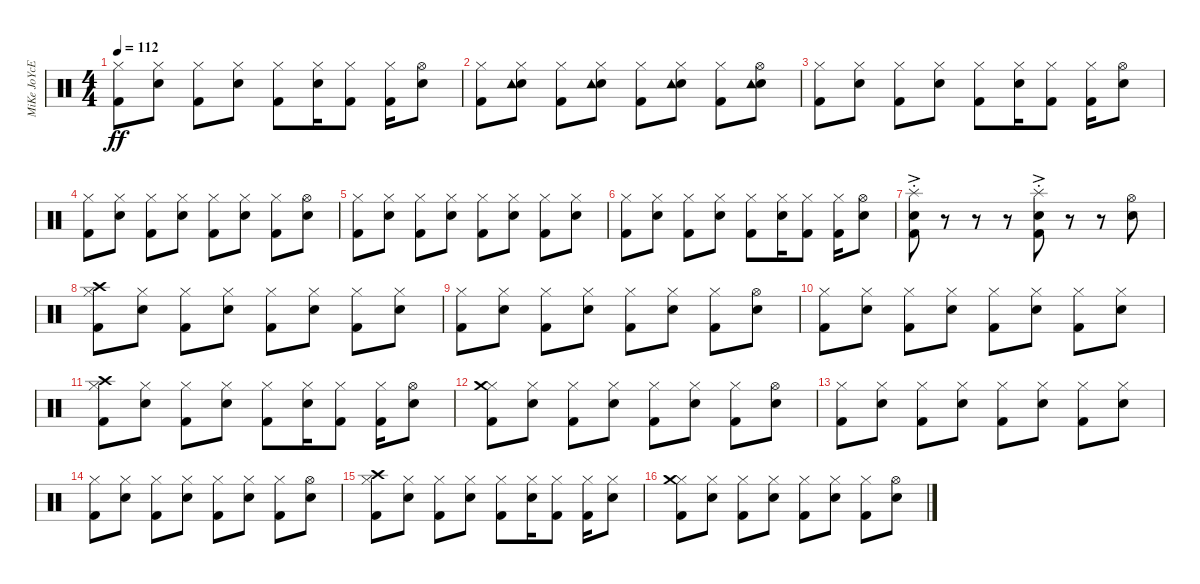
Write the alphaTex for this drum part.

\track ("MiKe JoYcE" "MiKe JoYcE") {instrument percussion}
\staff {score}
\articulation defaults
\ts (4 4)
\tempo 112
\clef neutral
\ks c
("Hi-Hat (closed)" "Kick (hit) 2").8{dy ff} ("Hi-Hat (closed)" "Electric Snare (hit)").8 ("Hi-Hat (closed)" "Kick (hit) 2").8 ("Hi-Hat (closed)" "Electric Snare (hit)").8 ("Hi-Hat (closed)" "Kick (hit) 2").8 ("Hi-Hat (closed)" "Electric Snare (hit)").16 ("Hi-Hat (closed)" "Kick (hit) 2").8 ("Hi-Hat (closed)" "Kick (hit) 2").16 ("Hi-Hat (open)" "Electric Snare (hit)").8 |
("Hi-Hat (closed)" "Kick (hit) 2").8 ("Hi-Hat (closed)" "Electric Snare (hit)" "Tambourine (hit)").8 ("Hi-Hat (closed)" "Kick (hit) 2").8 ("Hi-Hat (closed)" "Electric Snare (hit)" "Tambourine (hit)").8 ("Hi-Hat (closed)" "Kick (hit) 2").8 ("Hi-Hat (closed)" "Electric Snare (hit)" "Tambourine (hit)").8 ("Hi-Hat (closed)" "Kick (hit) 2").8 ("Hi-Hat (open)" "Electric Snare (hit)" "Tambourine (hit)").8 |
("Hi-Hat (closed)" "Kick (hit) 2").8 ("Hi-Hat (closed)" "Electric Snare (hit)").8 ("Hi-Hat (closed)" "Kick (hit) 2").8 ("Hi-Hat (closed)" "Electric Snare (hit)").8 ("Hi-Hat (closed)" "Kick (hit) 2").8 ("Hi-Hat (closed)" "Electric Snare (hit)").16 ("Hi-Hat (closed)" "Kick (hit) 2").8 ("Hi-Hat (closed)" "Kick (hit) 2").16 ("Hi-Hat (open)" "Electric Snare (hit)").8 |
("Hi-Hat (closed)" "Kick (hit) 2").8 ("Hi-Hat (closed)" "Electric Snare (hit)").8 ("Hi-Hat (closed)" "Kick (hit) 2").8 ("Hi-Hat (closed)" "Electric Snare (hit)").8 ("Hi-Hat (closed)" "Kick (hit) 2").8 ("Hi-Hat (closed)" "Electric Snare (hit)").8 ("Hi-Hat (closed)" "Kick (hit) 2").8 ("Hi-Hat (open)" "Electric Snare (hit)").8 |
("Hi-Hat (closed)" "Kick (hit) 2").8 ("Hi-Hat (closed)" "Electric Snare (hit)").8 ("Hi-Hat (closed)" "Kick (hit) 2").8 ("Hi-Hat (closed)" "Electric Snare (hit)").8 ("Hi-Hat (closed)" "Kick (hit) 2").8 ("Hi-Hat (closed)" "Electric Snare (hit)").8 ("Hi-Hat (closed)" "Kick (hit) 2").8 ("Hi-Hat (closed)" "Electric Snare (hit)").8 |
("Hi-Hat (closed)" "Kick (hit) 2").8 ("Hi-Hat (closed)" "Electric Snare (hit)").8 ("Hi-Hat (closed)" "Kick (hit) 2").8 ("Hi-Hat (closed)" "Electric Snare (hit)").8 ("Hi-Hat (closed)" "Kick (hit) 2").8 ("Hi-Hat (closed)" "Electric Snare (hit)").16 ("Hi-Hat (closed)" "Kick (hit) 2").8 ("Hi-Hat (closed)" "Kick (hit) 2").16 ("Hi-Hat (open)" "Electric Snare (hit)").8 |
("Splash (hit)"{ac st} "Electric Snare (hit)" "Kick (hit) 2").8 r.8 r.8 r.8 ("Splash (hit)"{ac st} "Electric Snare (hit)" "Kick (hit) 2").8 r.8 r.8 ("Hi-Hat (open)" "Electric Snare (hit)").8 |
("Hi-Hat (closed)" "Crash high (hit)" "Kick (hit) 2").8 ("Hi-Hat (closed)" "Electric Snare (hit)").8 ("Hi-Hat (closed)" "Kick (hit) 2").8 ("Hi-Hat (closed)" "Electric Snare (hit)").8 ("Hi-Hat (closed)" "Kick (hit) 2").8 ("Hi-Hat (closed)" "Electric Snare (hit)").8 ("Hi-Hat (closed)" "Kick (hit) 2").8 ("Hi-Hat (closed)" "Electric Snare (hit)").8 |
("Hi-Hat (closed)" "Kick (hit) 2").8 ("Hi-Hat (closed)" "Electric Snare (hit)").8 ("Hi-Hat (closed)" "Kick (hit) 2").8 ("Hi-Hat (closed)" "Electric Snare (hit)").8 ("Hi-Hat (closed)" "Kick (hit) 2").8 ("Hi-Hat (closed)" "Electric Snare (hit)").8 ("Hi-Hat (closed)" "Kick (hit) 2").8 ("Hi-Hat (open)" "Electric Snare (hit)").8 |
("Hi-Hat (closed)" "Kick (hit) 2").8 ("Hi-Hat (closed)" "Electric Snare (hit)").8 ("Hi-Hat (closed)" "Kick (hit) 2").8 ("Hi-Hat (closed)" "Electric Snare (hit)").8 ("Hi-Hat (closed)" "Kick (hit) 2").8 ("Hi-Hat (closed)" "Electric Snare (hit)").8 ("Hi-Hat (closed)" "Kick (hit) 2").8 ("Hi-Hat (closed)" "Electric Snare (hit)").8 |
("Hi-Hat (closed)" "Crash high (hit)" "Kick (hit) 2").8 ("Hi-Hat (closed)" "Electric Snare (hit)").8 ("Hi-Hat (closed)" "Kick (hit) 2").8 ("Hi-Hat (closed)" "Electric Snare (hit)").8 ("Hi-Hat (closed)" "Kick (hit) 2").8 ("Hi-Hat (closed)" "Electric Snare (hit)").16 ("Hi-Hat (closed)" "Kick (hit) 2").8 ("Hi-Hat (closed)" "Kick (hit) 2").16 ("Hi-Hat (open)" "Electric Snare (hit)").8 |
("Hi-Hat (closed)" "Crash medium (hit)" "Kick (hit) 2").8 ("Hi-Hat (closed)" "Electric Snare (hit)").8 ("Hi-Hat (closed)" "Kick (hit) 2").8 ("Hi-Hat (closed)" "Electric Snare (hit)").8 ("Hi-Hat (closed)" "Kick (hit) 2").8 ("Hi-Hat (closed)" "Electric Snare (hit)").8 ("Hi-Hat (closed)" "Kick (hit) 2").8 ("Hi-Hat (open)" "Electric Snare (hit)").8 |
("Hi-Hat (closed)" "Kick (hit) 2").8 ("Hi-Hat (closed)" "Electric Snare (hit)").8 ("Hi-Hat (closed)" "Kick (hit) 2").8 ("Hi-Hat (closed)" "Electric Snare (hit)").8 ("Hi-Hat (closed)" "Kick (hit) 2").8 ("Hi-Hat (closed)" "Electric Snare (hit)").8 ("Hi-Hat (closed)" "Kick (hit) 2").8 ("Hi-Hat (closed)" "Electric Snare (hit)").8 |
("Hi-Hat (closed)" "Kick (hit) 2").8 ("Hi-Hat (closed)" "Electric Snare (hit)").8 ("Hi-Hat (closed)" "Kick (hit) 2").8 ("Hi-Hat (closed)" "Electric Snare (hit)").8 ("Hi-Hat (closed)" "Kick (hit) 2").8 ("Hi-Hat (closed)" "Electric Snare (hit)").8 ("Hi-Hat (closed)" "Kick (hit) 2").8 ("Hi-Hat (open)" "Electric Snare (hit)").8 |
("Hi-Hat (closed)" "Crash high (hit)" "Kick (hit) 2").8 ("Hi-Hat (closed)" "Electric Snare (hit)").8 ("Hi-Hat (closed)" "Kick (hit) 2").8 ("Hi-Hat (closed)" "Electric Snare (hit)").8 ("Hi-Hat (closed)" "Kick (hit) 2").8 ("Hi-Hat (closed)" "Electric Snare (hit)").16 ("Hi-Hat (closed)" "Kick (hit) 2").8 ("Hi-Hat (closed)" "Kick (hit) 2").16 ("Hi-Hat (closed)" "Electric Snare (hit)").8 |
("Hi-Hat (closed)" "Crash medium (hit)" "Kick (hit) 2").8 ("Hi-Hat (closed)" "Electric Snare (hit)").8 ("Hi-Hat (closed)" "Kick (hit) 2").8 ("Hi-Hat (closed)" "Electric Snare (hit)").8 ("Hi-Hat (closed)" "Kick (hit) 2").8 ("Hi-Hat (closed)" "Electric Snare (hit)").8 ("Hi-Hat (closed)" "Kick (hit) 2").8 ("Hi-Hat (open)" "Electric Snare (hit)").8
